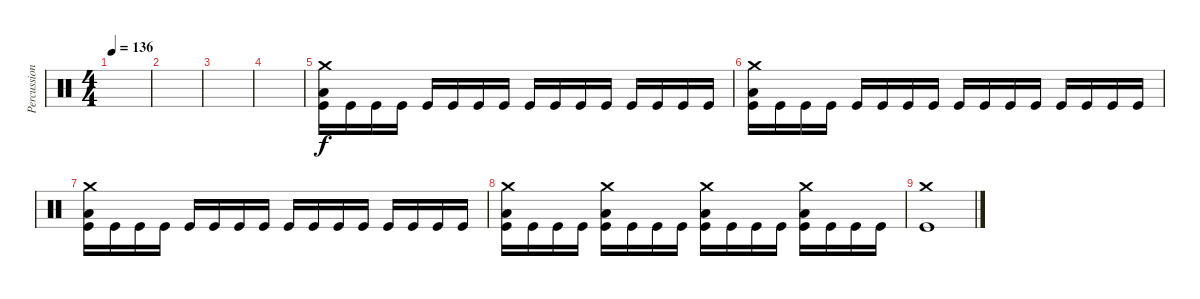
\track ("Percussion IV" "Percussion") {instrument percussion}
\staff {score}
\articulation defaults
\ts (4 4)
\tempo 136
\clef neutral
\ks c
|
|
|
|
("Crash medium (hit)" "Low Floor Tom (hit)" "Kick (hit)").16 "Kick (hit)".16 "Kick (hit)".16 "Kick (hit)".16 "Kick (hit)".16 "Kick (hit)".16 "Kick (hit)".16 "Kick (hit)".16 "Kick (hit)".16 "Kick (hit)".16 "Kick (hit)".16 "Kick (hit)".16 "Kick (hit)".16 "Kick (hit)".16 "Kick (hit)".16 "Kick (hit)".16 |
("Crash medium (hit)" "Low Floor Tom (hit)" "Kick (hit)").16 "Kick (hit)".16 "Kick (hit)".16 "Kick (hit)".16 "Kick (hit)".16 "Kick (hit)".16 "Kick (hit)".16 "Kick (hit)".16 "Kick (hit)".16 "Kick (hit)".16 "Kick (hit)".16 "Kick (hit)".16 "Kick (hit)".16 "Kick (hit)".16 "Kick (hit)".16 "Kick (hit)".16 |
("Crash medium (hit)" "Low Floor Tom (hit)" "Kick (hit)").16 "Kick (hit)".16 "Kick (hit)".16 "Kick (hit)".16 "Kick (hit)".16 "Kick (hit)".16 "Kick (hit)".16 "Kick (hit)".16 "Kick (hit)".16 "Kick (hit)".16 "Kick (hit)".16 "Kick (hit)".16 "Kick (hit)".16 "Kick (hit)".16 "Kick (hit)".16 "Kick (hit)".16 |
("Low Floor Tom (hit)" "Crash medium (hit)" "Kick (hit)").16 "Kick (hit)".16 "Kick (hit)".16 "Kick (hit)".16 ("Low Floor Tom (hit)" "Crash medium (hit)" "Kick (hit)").16 "Kick (hit)".16 "Kick (hit)".16 "Kick (hit)".16 ("Low Floor Tom (hit)" "Crash medium (hit)" "Kick (hit)").16 "Kick (hit)".16 "Kick (hit)".16 "Kick (hit)".16 ("Low Floor Tom (hit)" "Crash medium (hit)" "Kick (hit)").16 "Kick (hit)".16 "Kick (hit)".16 "Kick (hit)".16 |
("Crash medium (hit)" "Kick (hit)").1
